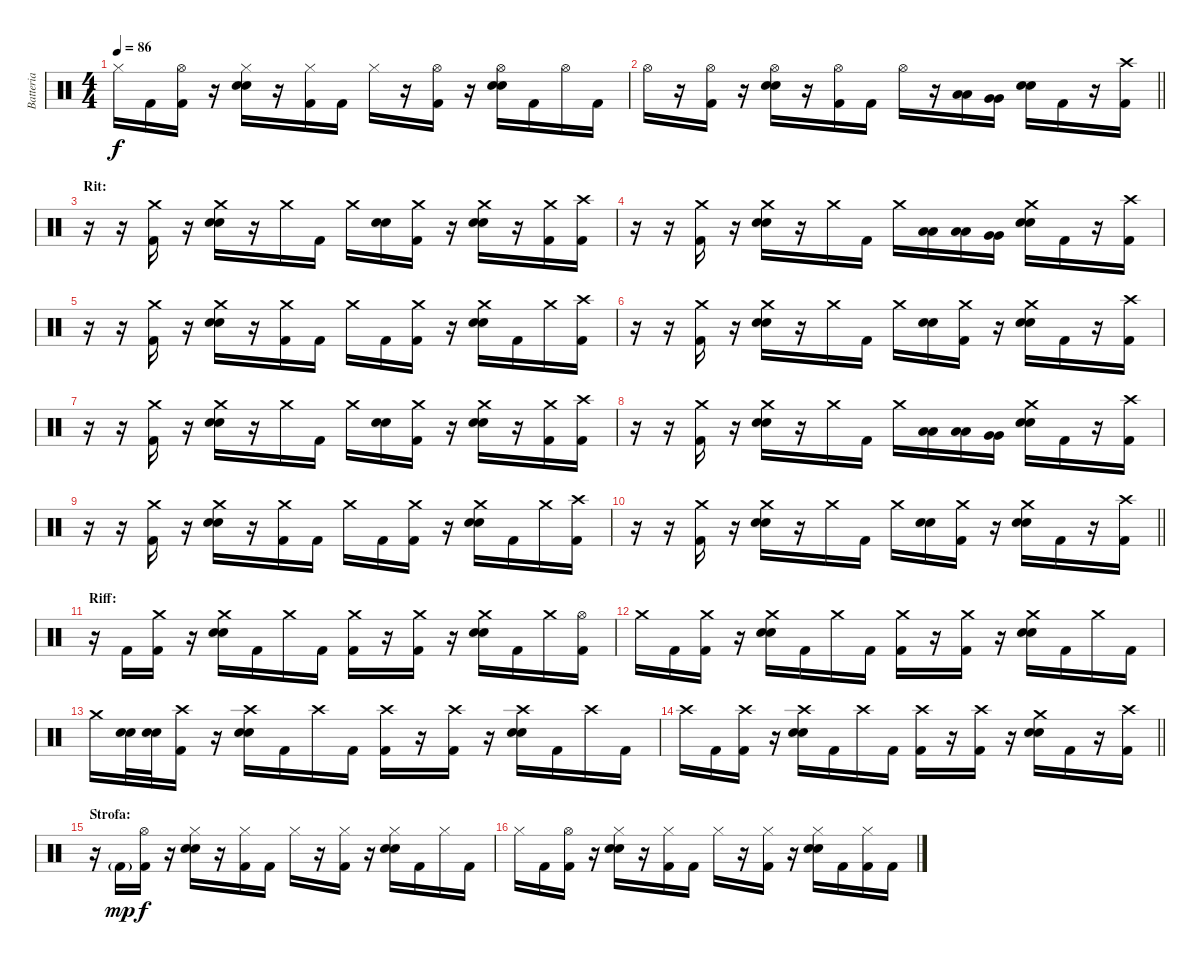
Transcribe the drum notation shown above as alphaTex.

\track ("Batteria" "Batteria") {instrument percussion}
\staff {score}
\articulation defaults
\ts (4 4)
\tempo 86
\clef neutral
\ks c "Hi-Hat (closed)".16{dy f} "Kick (hit) 2".16
("Kick (hit) 2" "Hi-Hat (open)").16 r.16 ("Snare (hit) 2" "Snare (hit) 2" "Hi-Hat (closed)").16 r.16 ("Kick (hit) 2" "Hi-Hat (closed)").16 "Kick (hit) 2".16 "Hi-Hat (closed)".16 r.16 ("Kick (hit) 2" "Hi-Hat (open)").16 r.16 ("Snare (hit) 2" "Snare (hit) 2" "Hi-Hat (open)").16 "Kick (hit) 2".16 "Hi-Hat (open)".16 "Kick (hit) 2".16 |
\barLineRight lightlight "Hi-Hat (open)".16
r.16 ("Kick (hit) 2" "Hi-Hat (open)").16 r.16 ("Snare (hit) 2" "Snare (hit) 2" "Hi-Hat (open)").16 r.16 ("Kick (hit) 2" "Hi-Hat (open)").16 "Kick (hit) 2".16 "Hi-Hat (open)".16 r.16 ("Low Tom (hit)" "Low Tom (hit)").16 ("Very Low Tom (hit)" "Very Low Tom (hit)").16 ("Snare (hit) 2" "Snare (hit) 2").16 "Kick (hit) 2".16 r.16 ("Kick (hit) 2" "Crash high (hit)").16 |
\section ("" "Rit:")
r.16 r.16 ("Kick (hit) 2" "Crash medium (hit)").16 r.16 ("Snare (hit) 2" "Snare (hit) 2" "Crash medium (hit)").16 r.16 "Crash medium (hit)".16 "Kick (hit) 2".16 "Crash medium (hit)".16 ("Snare (hit) 2" "Snare (hit) 2").16 ("Kick (hit) 2" "Crash medium (hit)").16 r.16 ("Snare (hit) 2" "Snare (hit) 2" "Crash medium (hit)").16 r.16 ("Kick (hit) 2" "Crash medium (hit)").16 ("Kick (hit) 2" "Crash high (hit)").16 |
r.16 r.16 ("Kick (hit) 2" "Crash medium (hit)").16 r.16 ("Snare (hit) 2" "Snare (hit) 2" "Crash medium (hit)").16 r.16 "Crash medium (hit)".16 "Kick (hit) 2".16 "Crash medium (hit)".16 ("Low Tom (hit)" "Low Tom (hit)").16 ("Low Tom (hit)" "Low Tom (hit)").16 ("Very Low Tom (hit)" "Very Low Tom (hit)").16 ("Snare (hit) 2" "Snare (hit) 2" "Crash medium (hit)").16 "Kick (hit) 2".16 r.16 ("Kick (hit) 2" "Crash high (hit)").16 |
r.16 r.16 ("Kick (hit) 2" "Crash medium (hit)").16 r.16 ("Snare (hit) 2" "Snare (hit) 2" "Crash medium (hit)").16 r.16 ("Kick (hit) 2" "Crash medium (hit)").16 "Kick (hit) 2".16 "Crash medium (hit)".16 "Kick (hit) 2".16 ("Kick (hit) 2" "Crash medium (hit)").16 r.16 ("Snare (hit) 2" "Snare (hit) 2" "Crash medium (hit)").16 "Kick (hit) 2".16 "Crash medium (hit)".16 ("Kick (hit) 2" "Crash high (hit)").16 |
r.16 r.16 ("Kick (hit) 2" "Crash medium (hit)").16 r.16 ("Snare (hit) 2" "Snare (hit) 2" "Crash medium (hit)").16 r.16 "Crash medium (hit)".16 "Kick (hit) 2".16 "Crash medium (hit)".16 ("Snare (hit) 2" "Snare (hit) 2").16 ("Kick (hit) 2" "Crash medium (hit)").16 r.16 ("Snare (hit) 2" "Snare (hit) 2" "Crash medium (hit)").16 "Kick (hit) 2".16 r.16 ("Kick (hit) 2" "Crash high (hit)").16 |
r.16 r.16 ("Kick (hit) 2" "Crash medium (hit)").16 r.16 ("Snare (hit) 2" "Snare (hit) 2" "Crash medium (hit)").16 r.16 "Crash medium (hit)".16 "Kick (hit) 2".16 "Crash medium (hit)".16 ("Snare (hit) 2" "Snare (hit) 2").16 ("Kick (hit) 2" "Crash medium (hit)").16 r.16 ("Snare (hit) 2" "Snare (hit) 2" "Crash medium (hit)").16 r.16 ("Kick (hit) 2" "Crash medium (hit)").16 ("Kick (hit) 2" "Crash high (hit)").16 |
r.16 r.16 ("Kick (hit) 2" "Crash medium (hit)").16 r.16 ("Snare (hit) 2" "Snare (hit) 2" "Crash medium (hit)").16 r.16 "Crash medium (hit)".16 "Kick (hit) 2".16 "Crash medium (hit)".16 ("Low Tom (hit)" "Low Tom (hit)").16 ("Low Tom (hit)" "Low Tom (hit)").16 ("Very Low Tom (hit)" "Very Low Tom (hit)").16 ("Snare (hit) 2" "Snare (hit) 2" "Crash medium (hit)").16 "Kick (hit) 2".16 r.16 ("Kick (hit) 2" "Crash high (hit)").16 |
r.16 r.16 ("Kick (hit) 2" "Crash medium (hit)").16 r.16 ("Snare (hit) 2" "Snare (hit) 2" "Crash medium (hit)").16 r.16 ("Kick (hit) 2" "Crash medium (hit)").16 "Kick (hit) 2".16 "Crash medium (hit)".16 "Kick (hit) 2".16 ("Kick (hit) 2" "Crash medium (hit)").16 r.16 ("Snare (hit) 2" "Snare (hit) 2" "Crash medium (hit)").16 "Kick (hit) 2".16 "Crash medium (hit)".16 ("Kick (hit) 2" "Crash high (hit)").16 |
\barLineRight lightlight
r.16 r.16 ("Kick (hit) 2" "Crash medium (hit)").16 r.16 ("Snare (hit) 2" "Snare (hit) 2" "Crash medium (hit)").16 r.16 "Crash medium (hit)".16 "Kick (hit) 2".16 "Crash medium (hit)".16 ("Snare (hit) 2" "Snare (hit) 2").16 ("Kick (hit) 2" "Crash medium (hit)").16 r.16 ("Snare (hit) 2" "Snare (hit) 2" "Crash medium (hit)").16 "Kick (hit) 2".16 r.16 ("Kick (hit) 2" "Crash high (hit)").16 |
\section ("" "Riff:")
r.16 "Kick (hit) 2".16 ("Kick (hit) 2" "Crash medium (hit)").16 r.16 ("Snare (hit) 2" "Snare (hit) 2" "Crash medium (hit)").16 "Kick (hit) 2".16 "Crash medium (hit)".16 "Kick (hit) 2".16 ("Kick (hit) 2" "Crash medium (hit)").16 r.16 ("Kick (hit) 2" "Crash medium (hit)").16 r.16 ("Snare (hit) 2" "Snare (hit) 2" "Crash medium (hit)").16 "Kick (hit) 2".16 "Crash medium (hit)".16 ("Kick (hit) 2" "Hi-Hat (open)").16 |
"Crash medium (hit)".16 "Kick (hit) 2".16 ("Kick (hit) 2" "Crash medium (hit)").16 r.16 ("Snare (hit) 2" "Snare (hit) 2" "Crash medium (hit)").16 "Kick (hit) 2".16 "Crash medium (hit)".16 "Kick (hit) 2".16 ("Kick (hit) 2" "Crash medium (hit)").16 r.16 ("Kick (hit) 2" "Crash medium (hit)").16 r.16 ("Snare (hit) 2" "Snare (hit) 2" "Crash medium (hit)").16 "Kick (hit) 2".16 "Crash medium (hit)".16 "Kick (hit) 2".16 |
"Crash medium (hit)".16 ("Snare (hit) 2" "Snare (hit) 2").32 ("Snare (hit) 2" "Snare (hit) 2").32 ("Kick (hit) 2" "Crash high (hit)").16 r.16 ("Snare (hit) 2" "Snare (hit) 2" "Crash high (hit)").16 "Kick (hit) 2".16 "Crash high (hit)".16 "Kick (hit) 2".16 ("Kick (hit) 2" "Crash high (hit)").16 r.16 ("Kick (hit) 2" "Crash high (hit)").16 r.16 ("Snare (hit) 2" "Snare (hit) 2" "Crash high (hit)").16 "Kick (hit) 2".16 "Crash high (hit)".16 "Kick (hit) 2".16 |
\barLineRight lightlight "Crash high (hit)".16 "Kick (hit) 2".16
("Kick (hit) 2" "Crash high (hit)").16 r.16 ("Snare (hit) 2" "Snare (hit) 2" "Crash high (hit)").16 "Kick (hit) 2".16 "Crash high (hit)".16 "Kick (hit) 2".16 ("Kick (hit) 2" "Crash high (hit)").16 r.16 ("Kick (hit) 2" "Crash high (hit)").16 r.16 ("Snare (hit) 2" "Snare (hit) 2" "Crash medium (hit)").16 "Kick (hit) 2".16 r.16 ("Kick (hit) 2" "Crash high (hit)").16 |
\section ("" "Strofa:")
r.16 "Kick (hit) 2"{g}.16{dy mp} ("Kick (hit) 2" "Hi-Hat (open)").16{dy f} r.16 ("Snare (hit) 2" "Snare (hit) 2" "Hi-Hat (closed)").16 r.16 ("Kick (hit) 2" "Hi-Hat (closed)").16 "Kick (hit) 2".16 "Hi-Hat (closed)".16 r.16 ("Kick (hit) 2" "Hi-Hat (closed)").16 r.16 ("Snare (hit) 2" "Snare (hit) 2" "Hi-Hat (closed)").16 "Kick (hit) 2".16 "Hi-Hat (closed)".16 "Kick (hit) 2".16 |
"Hi-Hat (closed)".16 "Kick (hit) 2".16 ("Kick (hit) 2" "Hi-Hat (open)").16 r.16 ("Snare (hit) 2" "Snare (hit) 2" "Hi-Hat (closed)").16 r.16 ("Kick (hit) 2" "Hi-Hat (closed)").16 "Kick (hit) 2".16 "Hi-Hat (closed)".16 r.16 ("Kick (hit) 2" "Hi-Hat (closed)").16 r.16 ("Snare (hit) 2" "Snare (hit) 2" "Hi-Hat (closed)").16 "Kick (hit) 2".16 ("Kick (hit) 2" "Hi-Hat (closed)").16 "Kick (hit) 2".16
